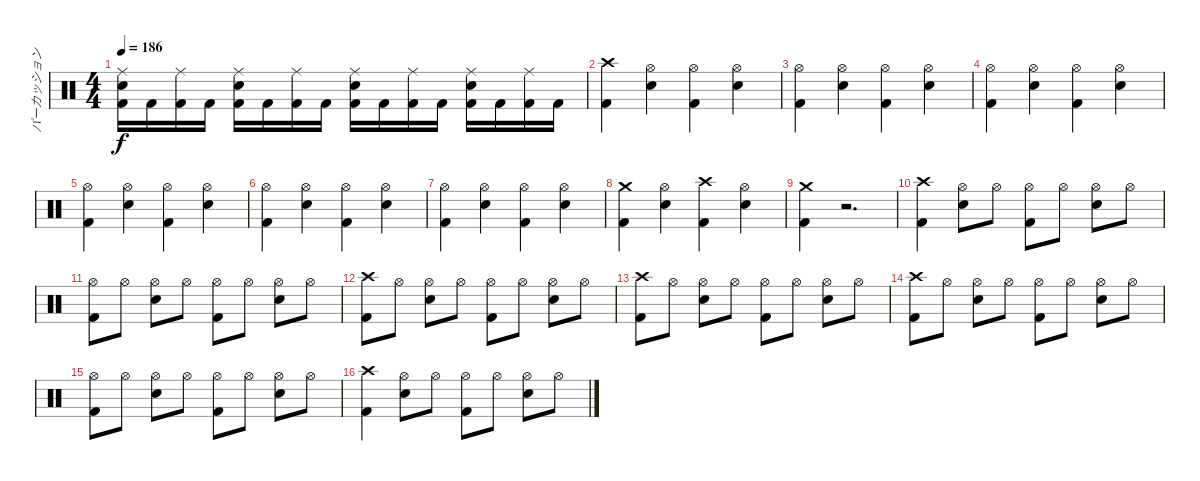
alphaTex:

\track ("パーカッション" "パーカッション") {instrument percussion}
\staff {score}
\articulation defaults
\ts (4 4)
\tempo 186
\clef neutral
\ks c
("Ride (middle)" "Snare (hit) 2" "Kick (hit) 2").16{dy f} "Kick (hit) 2".16 ("Ride (middle)" "Kick (hit) 2").16 "Kick (hit) 2".16 ("Ride (middle)" "Snare (hit) 2" "Kick (hit) 2").16 "Kick (hit) 2".16 ("Ride (middle)" "Kick (hit) 2").16 "Kick (hit) 2".16 ("Ride (middle)" "Snare (hit) 2" "Kick (hit) 2").16 "Kick (hit) 2".16 ("Ride (middle)" "Kick (hit) 2").16 "Kick (hit) 2".16 ("Ride (middle)" "Snare (hit) 2" "Kick (hit) 2").16 "Kick (hit) 2".16 ("Ride (middle)" "Kick (hit) 2").16 "Kick (hit) 2".16 |
("Crash high (hit)" "Kick (hit) 2").4 ("Hi-Hat (open)" "Snare (hit) 2").4 ("Hi-Hat (open)" "Kick (hit) 2").4 ("Hi-Hat (open)" "Snare (hit) 2").4 |
("Hi-Hat (open)" "Kick (hit) 2").4 ("Hi-Hat (open)" "Snare (hit) 2").4 ("Hi-Hat (open)" "Kick (hit) 2").4 ("Hi-Hat (open)" "Snare (hit) 2").4 |
("Hi-Hat (open)" "Kick (hit) 2").4 ("Hi-Hat (open)" "Snare (hit) 2").4 ("Hi-Hat (open)" "Kick (hit) 2").4 ("Hi-Hat (open)" "Snare (hit) 2").4 |
("Hi-Hat (open)" "Kick (hit) 2").4 ("Hi-Hat (open)" "Snare (hit) 2").4 ("Hi-Hat (open)" "Kick (hit) 2").4 ("Hi-Hat (open)" "Snare (hit) 2").4 |
("Hi-Hat (open)" "Kick (hit) 2").4 ("Hi-Hat (open)" "Snare (hit) 2").4 ("Hi-Hat (open)" "Kick (hit) 2").4 ("Hi-Hat (open)" "Snare (hit) 2").4 |
("Hi-Hat (open)" "Kick (hit) 2").4 ("Hi-Hat (open)" "Snare (hit) 2").4 ("Hi-Hat (open)" "Kick (hit) 2").4 ("Hi-Hat (open)" "Snare (hit) 2").4 |
("Crash medium (hit)" "Kick (hit) 2").4 ("Hi-Hat (open)" "Snare (hit) 2").4 ("Crash high (hit)" "Kick (hit) 2").4 ("Hi-Hat (open)" "Snare (hit) 2").4 |
("Crash medium (hit)" "Kick (hit) 2").4 r.2{d} |
("Crash high (hit)" "Kick (hit) 2").4 ("Hi-Hat (open)" "Snare (hit) 2").8 "Hi-Hat (open)".8 ("Hi-Hat (open)" "Kick (hit) 2").8 "Hi-Hat (open)".8 ("Hi-Hat (open)" "Snare (hit) 2").8 "Hi-Hat (open)".8 |
("Hi-Hat (open)" "Kick (hit) 2").8 "Hi-Hat (open)".8 ("Hi-Hat (open)" "Snare (hit) 2").8 "Hi-Hat (open)".8 ("Hi-Hat (open)" "Kick (hit) 2").8 "Hi-Hat (open)".8 ("Hi-Hat (open)" "Snare (hit) 2").8 "Hi-Hat (open)".8 |
("Crash high (hit)" "Kick (hit) 2").8 "Hi-Hat (open)".8 ("Hi-Hat (open)" "Snare (hit) 2").8 "Hi-Hat (open)".8 ("Hi-Hat (open)" "Kick (hit) 2").8 "Hi-Hat (open)".8 ("Hi-Hat (open)" "Snare (hit) 2").8 "Hi-Hat (open)".8 |
("Crash high (hit)" "Kick (hit) 2").8 "Hi-Hat (open)".8 ("Hi-Hat (open)" "Snare (hit) 2").8 "Hi-Hat (open)".8 ("Hi-Hat (open)" "Kick (hit) 2").8 "Hi-Hat (open)".8 ("Hi-Hat (open)" "Snare (hit) 2").8 "Hi-Hat (open)".8 |
("Crash high (hit)" "Kick (hit) 2").8 "Hi-Hat (open)".8 ("Hi-Hat (open)" "Snare (hit) 2").8 "Hi-Hat (open)".8 ("Hi-Hat (open)" "Kick (hit) 2").8 "Hi-Hat (open)".8 ("Hi-Hat (open)" "Snare (hit) 2").8 "Hi-Hat (open)".8 |
("Hi-Hat (open)" "Kick (hit) 2").8 "Hi-Hat (open)".8 ("Hi-Hat (open)" "Snare (hit) 2").8 "Hi-Hat (open)".8 ("Hi-Hat (open)" "Kick (hit) 2").8 "Hi-Hat (open)".8 ("Hi-Hat (open)" "Snare (hit) 2").8 "Hi-Hat (open)".8 |
("Crash high (hit)" "Kick (hit) 2").4 ("Hi-Hat (open)" "Snare (hit) 2").8 "Hi-Hat (open)".8 ("Hi-Hat (open)" "Kick (hit) 2").8 "Hi-Hat (open)".8 ("Hi-Hat (open)" "Snare (hit) 2").8 "Hi-Hat (open)".8
